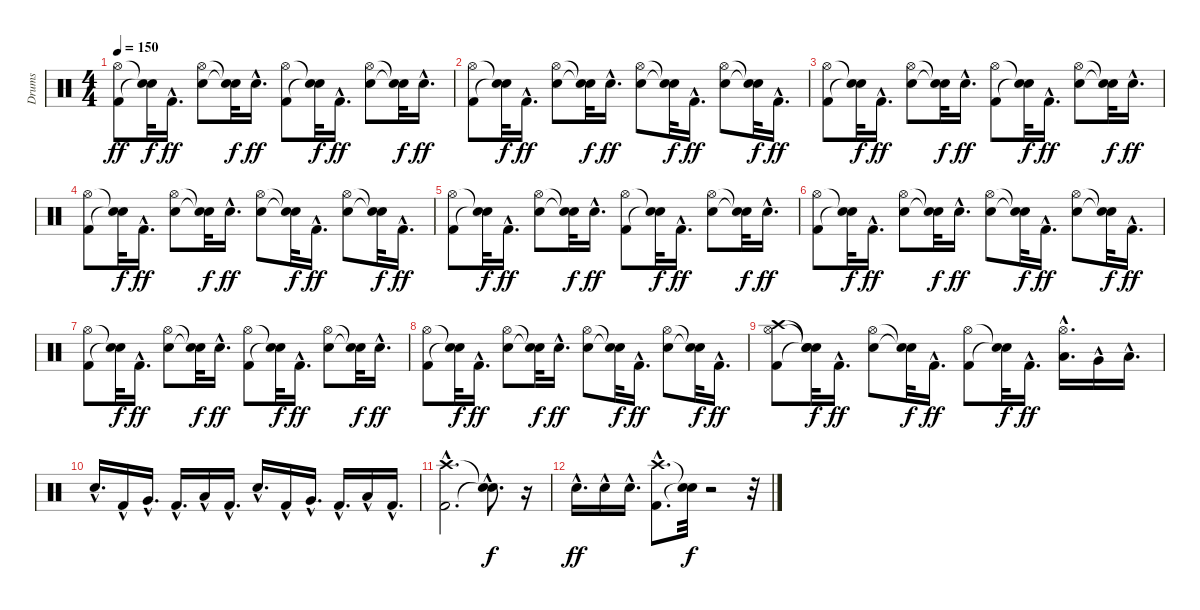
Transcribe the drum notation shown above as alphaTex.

\track ("Drums" "Drums") {instrument percussion}
\staff {score}
\articulation defaults
\ts (4 4)
\tempo 150
\clef neutral
\ks c
("Kick (hit) 2" "Hi-Hat (open)").8{dy ff} ("Snare (hit)"{t} "Snare (hit)"{t}).32{dy f} "Kick (hit) 2"{hac}.16{d dy ff} ("Snare (hit) 2" "Hi-Hat (open)").8 ("Snare (hit)"{t} "Snare (hit)"{t}).32{dy f} "Snare (hit) 2"{hac}.16{d dy ff} ("Kick (hit) 2" "Hi-Hat (open)").8 ("Snare (hit)"{t} "Snare (hit)"{t}).32{dy f} "Kick (hit) 2"{hac}.16{d dy ff} ("Snare (hit) 2" "Hi-Hat (open)").8 ("Snare (hit)"{t} "Snare (hit)"{t}).32{dy f} "Snare (hit) 2"{hac}.16{d dy ff} |
("Kick (hit) 2" "Hi-Hat (open)").8 ("Snare (hit)"{t} "Snare (hit)"{t}).32{dy f} "Kick (hit) 2"{hac}.16{d dy ff} ("Snare (hit) 2" "Hi-Hat (open)").8 ("Snare (hit)"{t} "Snare (hit)"{t}).32{dy f} "Snare (hit) 2"{hac}.16{d dy ff} ("Snare (hit) 2" "Hi-Hat (open)").8 ("Snare (hit)"{t} "Snare (hit)"{t}).32{dy f} "Kick (hit) 2"{hac}.16{d dy ff} ("Snare (hit) 2" "Hi-Hat (open)").8 ("Snare (hit)"{t} "Snare (hit)"{t}).32{dy f} "Kick (hit) 2"{hac}.16{d dy ff} |
("Kick (hit) 2" "Hi-Hat (open)").8 ("Snare (hit)"{t} "Snare (hit)"{t}).32{dy f} "Kick (hit) 2"{hac}.16{d dy ff} ("Snare (hit) 2" "Hi-Hat (open)").8 ("Snare (hit)"{t} "Snare (hit)"{t}).32{dy f} "Snare (hit) 2"{hac}.16{d dy ff} ("Kick (hit) 2" "Hi-Hat (open)").8 ("Snare (hit)"{t} "Snare (hit)"{t}).32{dy f} "Kick (hit) 2"{hac}.16{d dy ff} ("Snare (hit) 2" "Hi-Hat (open)").8 ("Snare (hit)"{t} "Snare (hit)"{t}).32{dy f} "Snare (hit) 2"{hac}.16{d dy ff} |
("Kick (hit) 2" "Hi-Hat (open)").8 ("Snare (hit)"{t} "Snare (hit)"{t}).32{dy f} "Kick (hit) 2"{hac}.16{d dy ff} ("Snare (hit) 2" "Hi-Hat (open)").8 ("Snare (hit)"{t} "Snare (hit)"{t}).32{dy f} "Snare (hit) 2"{hac}.16{d dy ff} ("Snare (hit) 2" "Hi-Hat (open)").8 ("Snare (hit)"{t} "Snare (hit)"{t}).32{dy f} "Kick (hit) 2"{hac}.16{d dy ff} ("Snare (hit) 2" "Hi-Hat (open)").8 ("Snare (hit)"{t} "Snare (hit)"{t}).32{dy f} "Kick (hit) 2"{hac}.16{d dy ff} |
("Kick (hit) 2" "Hi-Hat (open)").8 ("Snare (hit)"{t} "Snare (hit)"{t}).32{dy f} "Kick (hit) 2"{hac}.16{d dy ff} ("Snare (hit) 2" "Hi-Hat (open)").8 ("Snare (hit)"{t} "Snare (hit)"{t}).32{dy f} "Snare (hit) 2"{hac}.16{d dy ff} ("Kick (hit) 2" "Hi-Hat (open)").8 ("Snare (hit)"{t} "Snare (hit)"{t}).32{dy f} "Kick (hit) 2"{hac}.16{d dy ff} ("Snare (hit) 2" "Hi-Hat (open)").8 ("Snare (hit)"{t} "Snare (hit)"{t}).32{dy f} "Snare (hit) 2"{hac}.16{d dy ff} |
("Kick (hit) 2" "Hi-Hat (open)").8 ("Snare (hit)"{t} "Snare (hit)"{t}).32{dy f} "Kick (hit) 2"{hac}.16{d dy ff} ("Snare (hit) 2" "Hi-Hat (open)").8 ("Snare (hit)"{t} "Snare (hit)"{t}).32{dy f} "Snare (hit) 2"{hac}.16{d dy ff} ("Snare (hit) 2" "Hi-Hat (open)").8 ("Snare (hit)"{t} "Snare (hit)"{t}).32{dy f} "Kick (hit) 2"{hac}.16{d dy ff} ("Snare (hit) 2" "Hi-Hat (open)").8 ("Snare (hit)"{t} "Snare (hit)"{t}).32{dy f} "Kick (hit) 2"{hac}.16{d dy ff} |
("Kick (hit) 2" "Hi-Hat (open)").8 ("Snare (hit)"{t} "Snare (hit)"{t}).32{dy f} "Kick (hit) 2"{hac}.16{d dy ff} ("Snare (hit) 2" "Hi-Hat (open)").8 ("Snare (hit)"{t} "Snare (hit)"{t}).32{dy f} "Snare (hit) 2"{hac}.16{d dy ff} ("Kick (hit) 2" "Hi-Hat (open)").8 ("Snare (hit)"{t} "Snare (hit)"{t}).32{dy f} "Kick (hit) 2"{hac}.16{d dy ff} ("Snare (hit) 2" "Hi-Hat (open)").8 ("Snare (hit)"{t} "Snare (hit)"{t}).32{dy f} "Snare (hit) 2"{hac}.16{d dy ff} |
("Kick (hit) 2" "Hi-Hat (open)").8 ("Snare (hit)"{t} "Snare (hit)"{t}).32{dy f} "Kick (hit) 2"{hac}.16{d dy ff} ("Snare (hit) 2" "Hi-Hat (open)").8 ("Snare (hit)"{t} "Snare (hit)"{t}).32{dy f} "Snare (hit) 2"{hac}.16{d dy ff} ("Snare (hit) 2" "Hi-Hat (open)").8 ("Snare (hit)"{t} "Snare (hit)"{t}).32{dy f} "Kick (hit) 2"{hac}.16{d dy ff} ("Snare (hit) 2" "Hi-Hat (open)").8 ("Snare (hit)"{t} "Snare (hit)"{t}).32{dy f} "Kick (hit) 2"{hac}.16{d dy ff} |
("Kick (hit) 2" "Hi-Hat (open)" "Crash high (hit)").8 ("Snare (hit)"{t} "Snare (hit)"{t} "Snare (hit)"{t}).32{dy f} "Kick (hit) 2"{hac}.16{d dy ff} ("Snare (hit) 2" "Hi-Hat (open)").8 ("Snare (hit)"{t} "Snare (hit)"{t}).32{dy f} "Kick (hit) 2"{hac}.16{d dy ff} ("Kick (hit) 2" "Hi-Hat (open)").8 ("Snare (hit)"{t} "Snare (hit)"{t}).32{dy f} "Kick (hit) 2"{hac}.16{d dy ff} ("Low Tom (hit)"{hac} "Hi-Hat (open)"{hac}).16{d} "Very Low Tom (hit)"{hac}.16 "Low Floor Tom (hit)"{hac}.16{d} |
"Snare (hit) 2"{hac}.16{d} "Kick (hit) 2"{hac}.16 "Very Low Tom (hit)"{hac}.16{d} "Kick (hit) 2"{hac}.16{d} "Low Floor Tom (hit)"{hac}.16 "Kick (hit) 2"{hac}.16{d} "Snare (hit) 2"{hac}.16{d} "Kick (hit) 2"{hac}.16 "Very Low Tom (hit)"{hac}.16{d} "Kick (hit) 2"{hac}.16{d} "Low Floor Tom (hit)"{hac}.16 "Kick (hit) 2"{hac}.16{d} |
("Kick (hit) 2"{hac} "Crash high (hit)"{hac}).2{d} ("Snare (hit)"{hac t} "Snare (hit)"{hac t}).8{d dy f} r.16 |
"Snare (hit) 2"{hac}.16{d dy ff} "Snare (hit) 2"{hac}.16 "Snare (hit) 2"{hac}.16{d} ("Kick (hit) 2"{hac} "Crash high (hit)"{hac}).8{d} ("Snare (hit)"{t} "Snare (hit)"{t}).32{dy f} r.2 r.32
